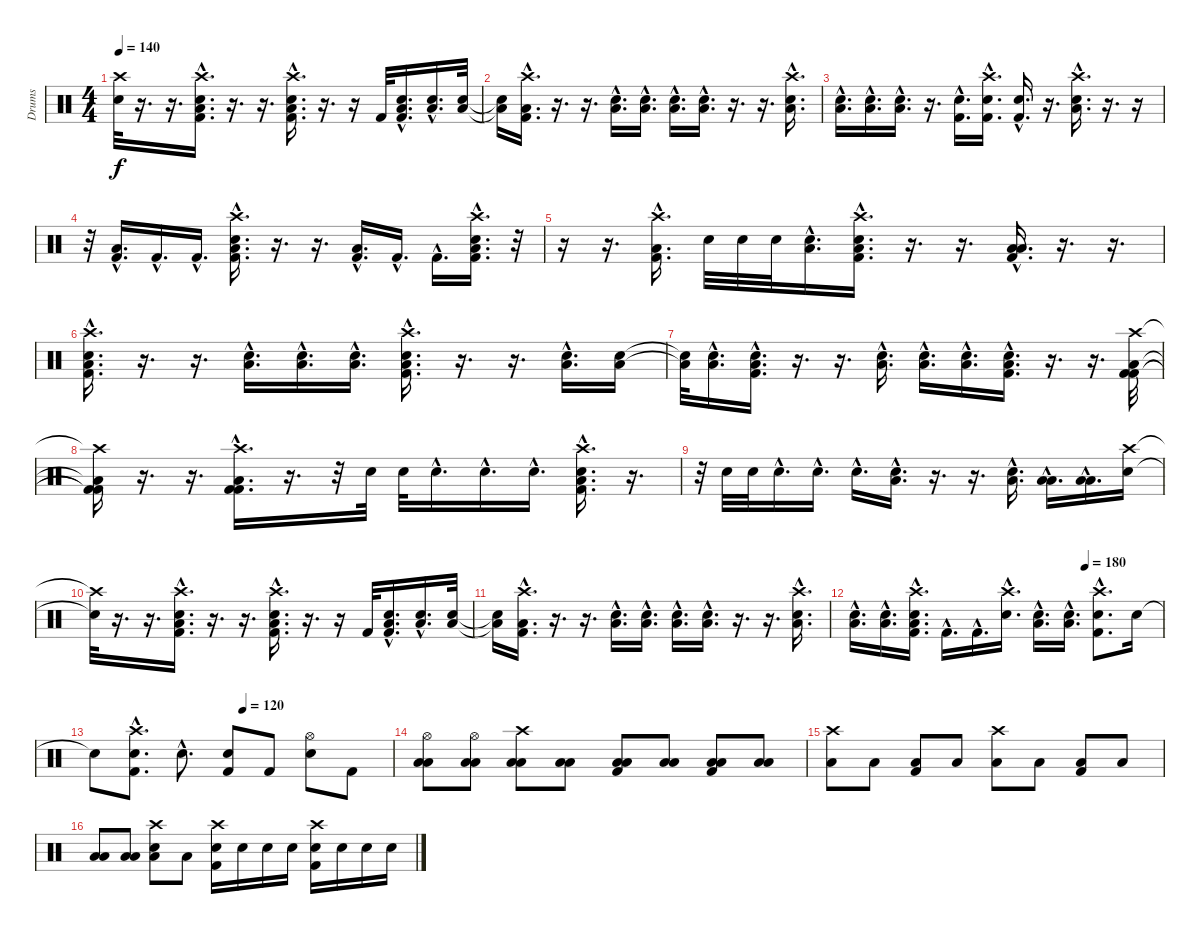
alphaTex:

\track ("Drums" "Drums") {instrument percussion}
\staff {score}
\articulation defaults
\ts (4 4)
\tempo 140
\clef neutral
\ks c
("Crash high (hit)"{t} "Snare (hit) 2"{t}).32{dy f} r.16{d} r.16{d} ("Crash high (hit)"{hac} "Kick (hit) 2"{hac} "Low Floor Tom (hit)"{hac} "Snare (hit) 2"{hac}).16{d} r.16{d} r.16{d} ("Crash high (hit)"{hac} "Kick (hit) 2"{hac} "Low Floor Tom (hit)"{hac} "Snare (hit) 2"{hac}).16{d} r.16{d} r.16 "Kick (hit) 2".32 ("Snare (hit) 2"{hac} "Kick (hit) 2"{hac} "Low Floor Tom (hit)"{hac}).16{d} ("Snare (hit) 2"{hac} "Low Floor Tom (hit)"{hac}).16{d} ("Snare (hit) 2" "Low Floor Tom (hit)").32 |
("Snare (hit) 2"{t} "Low Floor Tom (hit)"{t}).16 ("Crash high (hit)"{hac} "Low Floor Tom (hit)"{hac} "Kick (hit) 2"{hac}).16{d} r.16{d} r.16{d} ("Low Floor Tom (hit)"{hac} "Snare (hit) 2"{hac}).16{d} ("Low Floor Tom (hit)"{hac} "Snare (hit) 2"{hac}).16{d} ("Low Floor Tom (hit)"{hac} "Snare (hit) 2"{hac}).16{d} ("Low Floor Tom (hit)"{hac} "Snare (hit) 2"{hac}).16{d} r.16{d} r.16{d} ("Crash high (hit)"{hac} "Low Floor Tom (hit)"{hac} "Snare (hit) 2"{hac}).16{d} |
("Low Floor Tom (hit)"{hac} "Snare (hit) 2"{hac}).16{d} ("Low Floor Tom (hit)"{hac} "Snare (hit) 2"{hac}).16{d} ("Low Floor Tom (hit)"{hac} "Snare (hit) 2"{hac}).16{d} r.16{d} ("Snare (hit) 2"{hac} "Kick (hit) 2"{hac}).16{d} ("Crash high (hit)"{hac} "Snare (hit) 2"{hac} "Kick (hit) 2"{hac}).16{d} ("Kick (hit) 2"{hac} "Snare (hit) 2"{hac}).16{d} r.16{d} ("Crash high (hit)"{hac} "Low Floor Tom (hit)"{hac} "Snare (hit) 2"{hac}).16{d} r.16{d} r.16 |
r.32 ("Low Floor Tom (hit)"{hac} "Kick (hit) 2"{hac}).16{d} "Kick (hit) 2"{hac}.16{d} "Kick (hit) 2"{hac}.16{d} ("Crash high (hit)"{hac} "Snare (hit) 2"{hac} "Low Floor Tom (hit)"{hac} "Kick (hit) 2"{hac}).16{d} r.16{d} r.16{d} ("Low Floor Tom (hit)"{hac} "Kick (hit) 2"{hac}).16{d} "Kick (hit) 2"{hac}.16{d} "Kick (hit) 2"{hac}.16{d} ("Crash high (hit)"{hac} "Snare (hit) 2"{hac} "Low Floor Tom (hit)"{hac} "Kick (hit) 2"{hac}).16{d} r.32 |
r.16 r.16{d} ("Crash high (hit)"{hac} "Low Floor Tom (hit)"{hac} "Kick (hit) 2"{hac}).16{d} "Snare (hit) 2".32 "Snare (hit) 2".32 "Snare (hit) 2".32 ("Low Floor Tom (hit)"{hac} "Snare (hit) 2"{hac}).16{d} ("Crash high (hit)"{hac} "Snare (hit) 2"{hac} "Low Floor Tom (hit)"{hac} "Kick (hit) 2"{hac}).16{d} r.16{d} r.16{d} ("Kick (hit) 2"{hac} "Low Floor Tom (hit)"{hac} "Low Floor Tom (hit)"{hac}).16{d} r.16{d} r.16{d} |
("Crash high (hit)"{hac} "Snare (hit) 2"{hac} "Low Floor Tom (hit)"{hac} "Kick (hit) 2"{hac}).16{d} r.16{d} r.16{d} ("Snare (hit) 2"{hac} "Low Floor Tom (hit)"{hac}).16{d} ("Snare (hit) 2"{hac} "Low Floor Tom (hit)"{hac}).16{d} ("Low Floor Tom (hit)"{hac} "Snare (hit) 2"{hac}).16{d} ("Crash high (hit)"{hac} "Snare (hit) 2"{hac} "Low Floor Tom (hit)"{hac} "Kick (hit) 2"{hac}).16{d} r.16{d} r.16{d} ("Snare (hit) 2"{hac} "Low Floor Tom (hit)"{hac}).16{d} ("Snare (hit) 2" "Low Floor Tom (hit)").16 |
("Snare (hit) 2"{t} "Low Floor Tom (hit)"{t}).32 ("Snare (hit) 2"{hac} "Low Floor Tom (hit)"{hac}).16{d} ("Kick (hit) 2"{hac} "Low Floor Tom (hit)"{hac} "Snare (hit) 2"{hac}).16{d} r.16{d} r.16{d} ("Snare (hit) 2"{hac} "Low Floor Tom (hit)"{hac}).16{d} ("Snare (hit) 2"{hac} "Low Floor Tom (hit)"{hac}).16{d} ("Snare (hit) 2"{hac} "Low Floor Tom (hit)"{hac}).16{d} ("Snare (hit) 2"{hac} "Low Floor Tom (hit)"{hac} "Kick (hit) 2"{hac}).16{d} r.16{d} r.16{d} ("Crash high (hit)" "Kick (hit) 2" "Low Floor Tom (hit)" "Kick (hit) 2").32 |
("Crash high (hit)"{t} "Kick (hit) 2"{t} "Low Floor Tom (hit)"{t} "Kick (hit) 2"{t}).16 r.16{d} r.16{d} ("Crash high (hit)"{hac} "Kick (hit) 2"{hac} "Low Floor Tom (hit)"{hac} "Kick (hit) 2"{hac}).16{d} r.16{d} r.32 "Snare (hit) 2".32 "Snare (hit) 2".32 "Snare (hit) 2"{hac}.16{d} "Snare (hit) 2"{hac}.16{d} "Snare (hit) 2"{hac}.16{d} ("Crash high (hit)"{hac} "Low Floor Tom (hit)"{hac} "Snare (hit) 2"{hac} "Kick (hit) 2"{hac}).16{d} r.16{d} |
r.32 "Snare (hit) 2".32 "Snare (hit) 2".32 "Snare (hit) 2"{hac}.16{d} "Snare (hit) 2"{hac}.16{d} "Snare (hit) 2"{hac}.16{d} ("Low Floor Tom (hit)"{hac} "Snare (hit) 2"{hac}).16{d} r.16{d} r.16{d} ("Low Floor Tom (hit)"{hac} "Snare (hit) 2"{hac}).16{d} ("Low Floor Tom (hit)"{hac} "Low Floor Tom (hit)"{hac}).16{d} ("Low Floor Tom (hit)"{hac} "Low Floor Tom (hit)"{hac}).16{d} ("Crash high (hit)" "Snare (hit) 2").16 |
("Crash high (hit)"{t} "Snare (hit) 2"{t}).32 r.16{d} r.16{d} ("Crash high (hit)"{hac} "Kick (hit) 2"{hac} "Low Floor Tom (hit)"{hac} "Snare (hit) 2"{hac}).16{d} r.16{d} r.16{d} ("Crash high (hit)"{hac} "Kick (hit) 2"{hac} "Low Floor Tom (hit)"{hac} "Snare (hit) 2"{hac}).16{d} r.16{d} r.16 "Kick (hit) 2".32 ("Snare (hit) 2"{hac} "Kick (hit) 2"{hac} "Low Floor Tom (hit)"{hac}).16{d} ("Snare (hit) 2"{hac} "Low Floor Tom (hit)"{hac}).16{d} ("Snare (hit) 2" "Low Floor Tom (hit)").32 |
("Snare (hit) 2"{t} "Low Floor Tom (hit)"{t}).16 ("Crash high (hit)"{hac} "Low Floor Tom (hit)"{hac} "Kick (hit) 2"{hac}).16{d} r.16{d} r.16{d} ("Low Floor Tom (hit)"{hac} "Snare (hit) 2"{hac}).16{d} ("Low Floor Tom (hit)"{hac} "Snare (hit) 2"{hac}).16{d} ("Low Floor Tom (hit)"{hac} "Snare (hit) 2"{hac}).16{d} ("Low Floor Tom (hit)"{hac} "Snare (hit) 2"{hac}).16{d} r.16{d} r.16{d} ("Crash high (hit)"{hac} "Low Floor Tom (hit)"{hac} "Snare (hit) 2"{hac}).16{d} |
\tempo (180 0.75)
("Low Floor Tom (hit)"{hac} "Snare (hit) 2"{hac}).16{d} ("Low Floor Tom (hit)"{hac} "Snare (hit) 2"{hac}).16{d} ("Crash high (hit)"{hac} "Snare (hit) 2"{hac} "Low Floor Tom (hit)"{hac} "Kick (hit) 2"{hac}).16{d} "Kick (hit) 2"{hac}.16{d} "Kick (hit) 2"{hac}.16{d} ("Crash high (hit)"{hac} "Snare (hit) 2"{hac}).16{d} ("Snare (hit) 2"{hac} "Low Floor Tom (hit)"{hac}).16{d} ("Snare (hit) 2"{hac} "Low Floor Tom (hit)"{hac}).16{d} ("Crash high (hit)"{hac} "Snare (hit) 2"{hac} "Kick (hit) 2"{hac}).8{d} "Snare (hit) 2".16 |
\tempo (120 0.5)
"Snare (hit) 2"{t}.8 ("Crash high (hit)"{hac} "Snare (hit) 2"{hac} "Kick (hit) 2"{hac}).8{d} "Snare (hit) 2"{hac}.8{d} ("Snare (hit) 2" "Kick (hit) 2").8 "Kick (hit) 2".8 ("Hi-Hat (open)" "Snare (hit) 2").8 "Kick (hit) 2".8 |
("Hi-Hat (open)" "Low Floor Tom (hit)" "Low Floor Tom (hit)").8 ("Hi-Hat (open)" "Low Floor Tom (hit)" "Low Floor Tom (hit)").8 ("Crash high (hit)" "Low Floor Tom (hit)" "Low Floor Tom (hit)").8 ("Low Floor Tom (hit)" "Low Floor Tom (hit)").8 ("Low Floor Tom (hit)" "Low Floor Tom (hit)" "Kick (hit) 2").8 ("Low Floor Tom (hit)" "Low Floor Tom (hit)").8 ("Low Floor Tom (hit)" "Low Floor Tom (hit)" "Kick (hit) 2").8 ("Low Floor Tom (hit)" "Low Floor Tom (hit)").8 |
("Crash high (hit)" "Low Floor Tom (hit)").8 "Low Floor Tom (hit)".8 ("Low Floor Tom (hit)" "Kick (hit) 2").8 "Low Floor Tom (hit)".8 ("Crash high (hit)" "Low Floor Tom (hit)").8 "Low Floor Tom (hit)".8 ("Low Floor Tom (hit)" "Kick (hit) 2").8 "Low Floor Tom (hit)".8 |
("Low Floor Tom (hit)" "Low Floor Tom (hit)").8 ("Low Floor Tom (hit)" "Low Floor Tom (hit)").8 ("Snare (hit) 2" "Crash high (hit)" "Low Floor Tom (hit)").8 "Low Floor Tom (hit)".8 ("Crash high (hit)" "Snare (hit) 2" "Kick (hit) 2").16 "Snare (hit) 2".16 "Snare (hit) 2".16 "Snare (hit) 2".16 ("Crash high (hit)" "Snare (hit) 2" "Kick (hit) 2").16 "Snare (hit) 2".16 "Snare (hit) 2".16 "Snare (hit) 2".16
